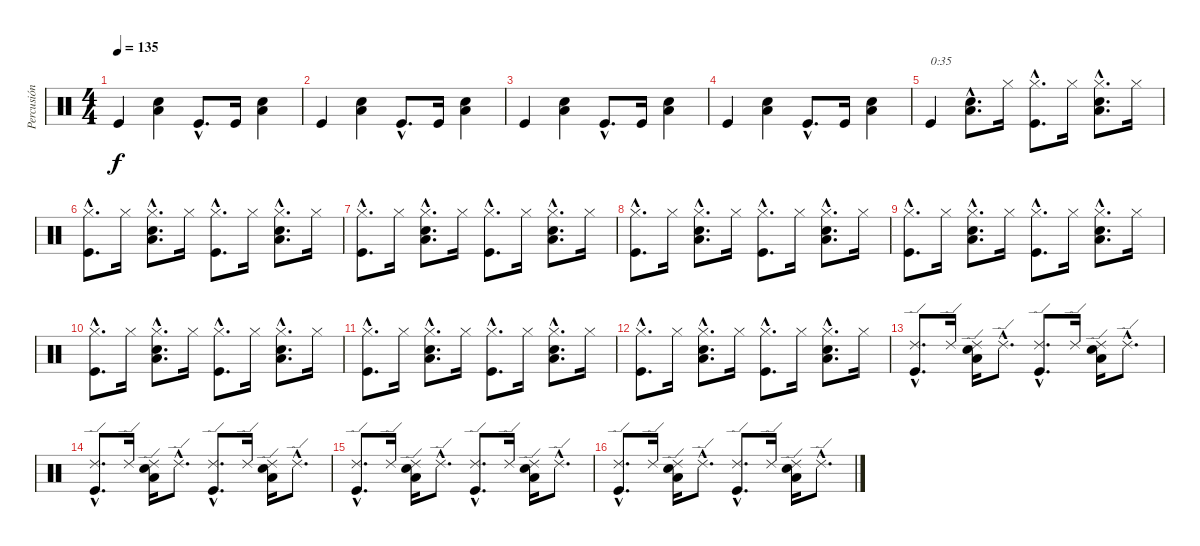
\track ("Percusión" "Percusión") {instrument percussion}
\staff {score}
\articulation defaults
\ts (4 4)
\tempo 135
\clef neutral
\ks c "Kick (hit)".4{dy f}
("Snare (hit) 2" "Low Tom (hit)").4 "Kick (hit)"{hac}.8{d} "Kick (hit)".16 ("Snare (hit) 2" "Low Tom (hit)").4 |
"Kick (hit)".4 ("Snare (hit) 2" "Low Tom (hit)").4 "Kick (hit)"{hac}.8{d} "Kick (hit)".16 ("Snare (hit) 2" "Low Tom (hit)").4 |
"Kick (hit)".4 ("Snare (hit) 2" "Low Tom (hit)").4 "Kick (hit)"{hac}.8{d} "Kick (hit)".16 ("Snare (hit) 2" "Low Tom (hit)").4 |
"Kick (hit)".4 ("Snare (hit) 2" "Low Tom (hit)").4 "Kick (hit)"{hac}.8{d} "Kick (hit)".16 ("Snare (hit) 2" "Low Tom (hit)").4 |
"Kick (hit)".4{txt "0:35"} ("Snare (hit) 2"{hac} "Low Tom (hit)"{hac}).8{d} "Hi-Hat (closed)".16 ("Kick (hit)"{hac} "Hi-Hat (closed)"{hac}).8{d} "Hi-Hat (closed)".16 ("Snare (hit) 2"{hac} "Low Tom (hit)"{hac} "Hi-Hat (closed)"{hac}).8{d} "Hi-Hat (closed)".16 |
("Kick (hit)"{hac} "Hi-Hat (closed)"{hac}).8{d} "Hi-Hat (closed)".16 ("Snare (hit) 2"{hac} "Low Tom (hit)"{hac} "Hi-Hat (closed)"{hac}).8{d} "Hi-Hat (closed)".16 ("Kick (hit)"{hac} "Hi-Hat (closed)"{hac}).8{d} "Hi-Hat (closed)".16 ("Snare (hit) 2"{hac} "Low Tom (hit)"{hac} "Hi-Hat (closed)"{hac}).8{d} "Hi-Hat (closed)".16 |
("Kick (hit)"{hac} "Hi-Hat (closed)"{hac}).8{d} "Hi-Hat (closed)".16 ("Snare (hit) 2"{hac} "Low Tom (hit)"{hac} "Hi-Hat (closed)"{hac}).8{d} "Hi-Hat (closed)".16 ("Kick (hit)"{hac} "Hi-Hat (closed)"{hac}).8{d} "Hi-Hat (closed)".16 ("Snare (hit) 2"{hac} "Low Tom (hit)"{hac} "Hi-Hat (closed)"{hac}).8{d} "Hi-Hat (closed)".16 |
("Kick (hit)"{hac} "Hi-Hat (closed)"{hac}).8{d} "Hi-Hat (closed)".16 ("Snare (hit) 2"{hac} "Low Tom (hit)"{hac} "Hi-Hat (closed)"{hac}).8{d} "Hi-Hat (closed)".16 ("Kick (hit)"{hac} "Hi-Hat (closed)"{hac}).8{d} "Hi-Hat (closed)".16 ("Snare (hit) 2"{hac} "Low Tom (hit)"{hac} "Hi-Hat (closed)"{hac}).8{d} "Hi-Hat (closed)".16 |
("Kick (hit)"{hac} "Hi-Hat (closed)"{hac}).8{d} "Hi-Hat (closed)".16 ("Snare (hit) 2"{hac} "Low Tom (hit)"{hac} "Hi-Hat (closed)"{hac}).8{d} "Hi-Hat (closed)".16 ("Kick (hit)"{hac} "Hi-Hat (closed)"{hac}).8{d} "Hi-Hat (closed)".16 ("Snare (hit) 2"{hac} "Low Tom (hit)"{hac} "Hi-Hat (closed)"{hac}).8{d} "Hi-Hat (closed)".16 |
("Kick (hit)"{hac} "Hi-Hat (closed)"{hac}).8{d} "Hi-Hat (closed)".16 ("Snare (hit) 2"{hac} "Low Tom (hit)"{hac} "Hi-Hat (closed)"{hac}).8{d} "Hi-Hat (closed)".16 ("Kick (hit)"{hac} "Hi-Hat (closed)"{hac}).8{d} "Hi-Hat (closed)".16 ("Snare (hit) 2"{hac} "Low Tom (hit)"{hac} "Hi-Hat (closed)"{hac}).8{d} "Hi-Hat (closed)".16 |
("Kick (hit)"{hac} "Hi-Hat (closed)"{hac}).8{d} "Hi-Hat (closed)".16 ("Snare (hit) 2"{hac} "Low Tom (hit)"{hac} "Hi-Hat (closed)"{hac}).8{d} "Hi-Hat (closed)".16 ("Kick (hit)"{hac} "Hi-Hat (closed)"{hac}).8{d} "Hi-Hat (closed)".16 ("Snare (hit) 2"{hac} "Low Tom (hit)"{hac} "Hi-Hat (closed)"{hac}).8{d} "Hi-Hat (closed)".16 |
("Kick (hit)"{hac} "Hi-Hat (closed)"{hac}).8{d} "Hi-Hat (closed)".16 ("Snare (hit) 2"{hac} "Low Tom (hit)"{hac} "Hi-Hat (closed)"{hac}).8{d} "Hi-Hat (closed)".16 ("Kick (hit)"{hac} "Hi-Hat (closed)"{hac}).8{d} "Hi-Hat (closed)".16 ("Snare (hit) 2"{hac} "Low Tom (hit)"{hac} "Hi-Hat (closed)"{hac}).8{d} "Hi-Hat (closed)".16 |
("Kick (hit)"{hac} "Ride (edge) 2"{hac}).8{d} "Ride (edge) 2".16 ("Snare (hit) 2" "Low Tom (hit)" "Ride (edge) 2").16 "Ride (edge) 2"{hac}.8{d} ("Kick (hit)"{hac} "Ride (edge) 2"{hac}).8{d} "Ride (edge) 2".16 ("Snare (hit) 2" "Low Tom (hit)" "Ride (edge) 2").16 "Ride (edge) 2"{hac}.8{d} |
("Kick (hit)"{hac} "Ride (edge) 2"{hac}).8{d} "Ride (edge) 2".16 ("Snare (hit) 2" "Low Tom (hit)" "Ride (edge) 2").16 "Ride (edge) 2"{hac}.8{d} ("Kick (hit)"{hac} "Ride (edge) 2"{hac}).8{d} "Ride (edge) 2".16 ("Snare (hit) 2" "Low Tom (hit)" "Ride (edge) 2").16 "Ride (edge) 2"{hac}.8{d} |
("Kick (hit)"{hac} "Ride (edge) 2"{hac}).8{d} "Ride (edge) 2".16 ("Snare (hit) 2" "Low Tom (hit)" "Ride (edge) 2").16 "Ride (edge) 2"{hac}.8{d} ("Kick (hit)"{hac} "Ride (edge) 2"{hac}).8{d} "Ride (edge) 2".16 ("Snare (hit) 2" "Low Tom (hit)" "Ride (edge) 2").16 "Ride (edge) 2"{hac}.8{d} |
("Kick (hit)"{hac} "Ride (edge) 2"{hac}).8{d} "Ride (edge) 2".16 ("Snare (hit) 2" "Low Tom (hit)" "Ride (edge) 2").16 "Ride (edge) 2"{hac}.8{d} ("Kick (hit)"{hac} "Ride (edge) 2"{hac}).8{d} "Ride (edge) 2".16 ("Snare (hit) 2" "Low Tom (hit)" "Ride (edge) 2").16 "Ride (edge) 2"{hac}.8{d}
